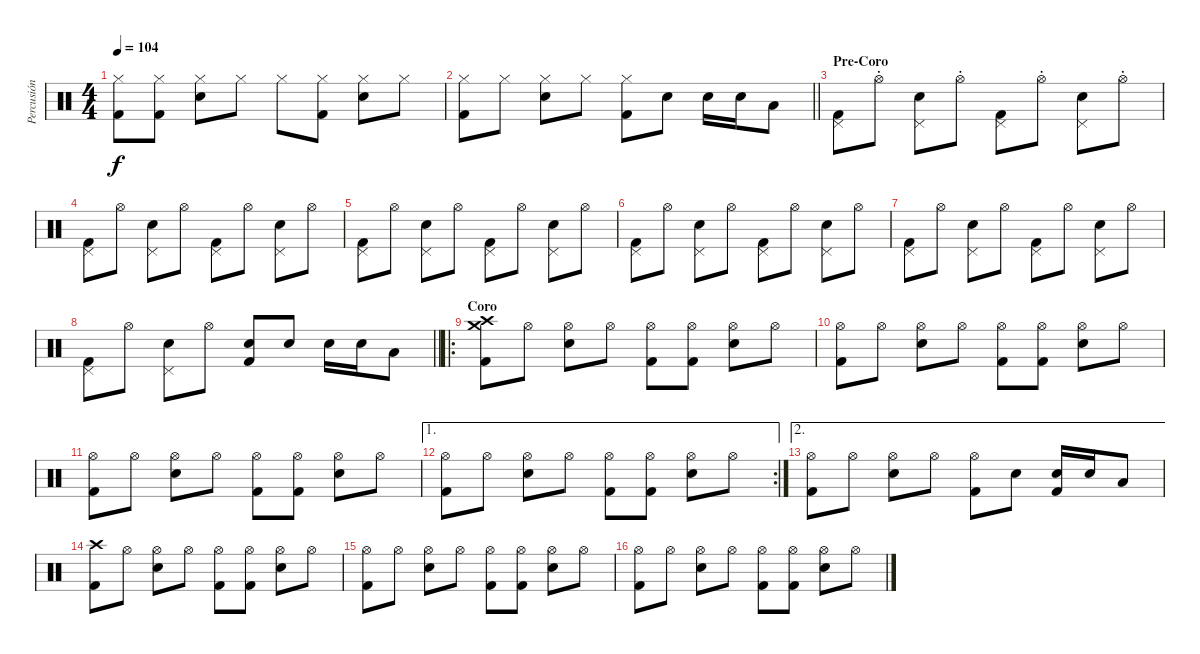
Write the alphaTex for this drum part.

\track ("Percusión" "Percusión") {instrument percussion}
\staff {score}
\articulation defaults
\ts (4 4)
\tempo 104
\clef neutral
\ks c
("Hi-Hat (closed)" "Kick (hit) 2").8{dy f} ("Hi-Hat (closed)" "Kick (hit) 2").8 ("Hi-Hat (closed)" "Snare (hit) 2").8 "Hi-Hat (closed)".8 "Hi-Hat (closed)".8 ("Hi-Hat (closed)" "Kick (hit) 2").8 ("Hi-Hat (closed)" "Snare (hit) 2").8 "Hi-Hat (closed)".8 |
\barLineRight lightlight
("Hi-Hat (closed)" "Kick (hit) 2").8 "Hi-Hat (closed)".8 ("Hi-Hat (closed)" "Snare (hit) 2").8 "Hi-Hat (closed)".8 ("Hi-Hat (closed)" "Kick (hit) 2").8 "Snare (hit) 2".8 "Snare (hit) 2".16 "Snare (hit) 2".16 "Low Tom (hit)".8 |
\section ("" "Pre-Coro")
("Pedal Hi-Hat (hit)" "Kick (hit) 2").8 "Hi-Hat (open)"{st}.8 ("Pedal Hi-Hat (hit)" "Snare (hit) 2").8 "Hi-Hat (open)"{st}.8 ("Pedal Hi-Hat (hit)" "Kick (hit) 2").8 "Hi-Hat (open)"{st}.8 ("Pedal Hi-Hat (hit)" "Snare (hit) 2").8 "Hi-Hat (open)"{st}.8 |
("Pedal Hi-Hat (hit)" "Kick (hit) 2").8 "Hi-Hat (open)".8 ("Pedal Hi-Hat (hit)" "Snare (hit) 2").8 "Hi-Hat (open)".8 ("Pedal Hi-Hat (hit)" "Kick (hit) 2").8 "Hi-Hat (open)".8 ("Pedal Hi-Hat (hit)" "Snare (hit) 2").8 "Hi-Hat (open)".8 |
("Pedal Hi-Hat (hit)" "Kick (hit) 2").8 "Hi-Hat (open)".8 ("Pedal Hi-Hat (hit)" "Snare (hit) 2").8 "Hi-Hat (open)".8 ("Pedal Hi-Hat (hit)" "Kick (hit) 2").8 "Hi-Hat (open)".8 ("Pedal Hi-Hat (hit)" "Snare (hit) 2").8 "Hi-Hat (open)".8 |
("Pedal Hi-Hat (hit)" "Kick (hit) 2").8 "Hi-Hat (open)".8 ("Pedal Hi-Hat (hit)" "Snare (hit) 2").8 "Hi-Hat (open)".8 ("Pedal Hi-Hat (hit)" "Kick (hit) 2").8 "Hi-Hat (open)".8 ("Pedal Hi-Hat (hit)" "Snare (hit) 2").8 "Hi-Hat (open)".8 |
("Pedal Hi-Hat (hit)" "Kick (hit) 2").8 "Hi-Hat (open)".8 ("Pedal Hi-Hat (hit)" "Snare (hit) 2").8 "Hi-Hat (open)".8 ("Pedal Hi-Hat (hit)" "Kick (hit) 2").8 "Hi-Hat (open)".8 ("Pedal Hi-Hat (hit)" "Snare (hit) 2").8 "Hi-Hat (open)".8 |
\barLineRight lightlight
("Pedal Hi-Hat (hit)" "Kick (hit) 2").8 "Hi-Hat (open)".8 ("Pedal Hi-Hat (hit)" "Snare (hit) 2").8 "Hi-Hat (open)".8 ("Snare (hit) 2" "Kick (hit) 2").8 "Snare (hit) 2".8 "Snare (hit) 2".16 "Snare (hit) 2".16 "Low Tom (hit)".8 |
\ro
\section ("" "Coro")
("Crash medium (hit)" "Crash high (hit)" "Kick (hit) 2").8 "Hi-Hat (open)".8 ("Hi-Hat (open)" "Snare (hit) 2").8 "Hi-Hat (open)".8 ("Hi-Hat (open)" "Kick (hit) 2").8 ("Hi-Hat (open)" "Kick (hit) 2").8 ("Hi-Hat (open)" "Snare (hit) 2").8 "Hi-Hat (open)".8 |
("Hi-Hat (open)" "Kick (hit) 2").8 "Hi-Hat (open)".8 ("Hi-Hat (open)" "Snare (hit) 2").8 "Hi-Hat (open)".8 ("Hi-Hat (open)" "Kick (hit) 2").8 ("Hi-Hat (open)" "Kick (hit) 2").8 ("Hi-Hat (open)" "Snare (hit) 2").8 "Hi-Hat (open)".8 |
("Hi-Hat (open)" "Kick (hit) 2").8 "Hi-Hat (open)".8 ("Hi-Hat (open)" "Snare (hit) 2").8 "Hi-Hat (open)".8 ("Hi-Hat (open)" "Kick (hit) 2").8 ("Hi-Hat (open)" "Kick (hit) 2").8 ("Hi-Hat (open)" "Snare (hit) 2").8 "Hi-Hat (open)".8 |
\ae 1
\rc 2
("Hi-Hat (open)" "Kick (hit) 2").8 "Hi-Hat (open)".8 ("Hi-Hat (open)" "Snare (hit) 2").8 "Hi-Hat (open)".8 ("Hi-Hat (open)" "Kick (hit) 2").8 ("Hi-Hat (open)" "Kick (hit) 2").8 ("Hi-Hat (open)" "Snare (hit) 2").8 "Hi-Hat (open)".8 |
\ae 2
("Hi-Hat (open)" "Kick (hit) 2").8 "Hi-Hat (open)".8 ("Hi-Hat (open)" "Snare (hit) 2").8 "Hi-Hat (open)".8 ("Hi-Hat (open)" "Kick (hit) 2").8 "Snare (hit) 2".8 ("Snare (hit) 2" "Kick (hit) 2").16 "Snare (hit) 2".16 "Low Tom (hit)".8 |
("Crash high (hit)" "Kick (hit) 2").8 "Hi-Hat (open)".8 ("Hi-Hat (open)" "Snare (hit) 2").8 "Hi-Hat (open)".8 ("Hi-Hat (open)" "Kick (hit) 2").8 ("Hi-Hat (open)" "Kick (hit) 2").8 ("Hi-Hat (open)" "Snare (hit) 2").8 "Hi-Hat (open)".8 |
("Hi-Hat (open)" "Kick (hit) 2").8 "Hi-Hat (open)".8 ("Hi-Hat (open)" "Snare (hit) 2").8 "Hi-Hat (open)".8 ("Hi-Hat (open)" "Kick (hit) 2").8 ("Hi-Hat (open)" "Kick (hit) 2").8 ("Hi-Hat (open)" "Snare (hit) 2").8 "Hi-Hat (open)".8 |
("Hi-Hat (open)" "Kick (hit) 2").8 "Hi-Hat (open)".8 ("Hi-Hat (open)" "Snare (hit) 2").8 "Hi-Hat (open)".8 ("Hi-Hat (open)" "Kick (hit) 2").8 ("Hi-Hat (open)" "Kick (hit) 2").8 ("Hi-Hat (open)" "Snare (hit) 2").8 "Hi-Hat (open)".8
